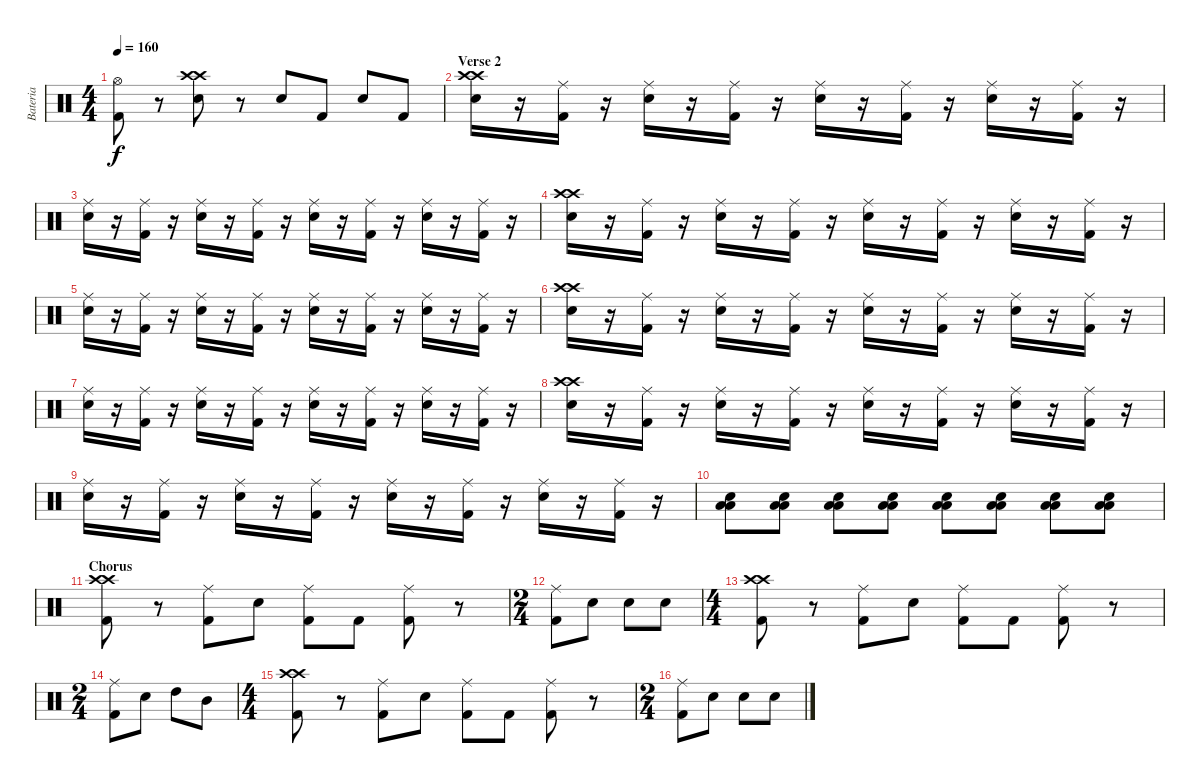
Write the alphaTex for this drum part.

\track ("Bateria" "Bateria") {instrument percussion}
\staff {score}
\articulation defaults
\ts (4 4)
\tempo 160
\clef neutral
\ks c
("Hi-Hat (open)" "Kick (hit) 2").8{dy f} r.8 ("Crash high (hit)" "Crash high (hit)" "Snare (hit) 2").8 r.8 "Snare (hit) 2".8 "Kick (hit) 2".8 "Snare (hit) 2".8 "Kick (hit) 2".8 |
\section ("" "Verse 2")
("Crash high (hit)" "Crash high (hit)" "Snare (hit) 2").16 r.16 ("Ride (middle)" "Kick (hit) 2").16 r.16 ("Ride (middle)" "Snare (hit) 2").16 r.16 ("Ride (middle)" "Kick (hit) 2").16 r.16 ("Ride (middle)" "Snare (hit) 2").16 r.16 ("Ride (middle)" "Kick (hit) 2").16 r.16 ("Ride (middle)" "Snare (hit) 2").16 r.16 ("Ride (middle)" "Kick (hit) 2").16 r.16 |
("Ride (middle)" "Snare (hit) 2").16 r.16 ("Ride (middle)" "Kick (hit) 2").16 r.16 ("Ride (middle)" "Snare (hit) 2").16 r.16 ("Ride (middle)" "Kick (hit) 2").16 r.16 ("Ride (middle)" "Snare (hit) 2").16 r.16 ("Ride (middle)" "Kick (hit) 2").16 r.16 ("Ride (middle)" "Snare (hit) 2").16 r.16 ("Ride (middle)" "Kick (hit) 2").16 r.16 |
("Crash high (hit)" "Crash high (hit)" "Snare (hit) 2").16 r.16 ("Ride (middle)" "Kick (hit) 2").16 r.16 ("Ride (middle)" "Snare (hit) 2").16 r.16 ("Ride (middle)" "Kick (hit) 2").16 r.16 ("Ride (middle)" "Snare (hit) 2").16 r.16 ("Ride (middle)" "Kick (hit) 2").16 r.16 ("Ride (middle)" "Snare (hit) 2").16 r.16 ("Ride (middle)" "Kick (hit) 2").16 r.16 |
("Ride (middle)" "Snare (hit) 2").16 r.16 ("Ride (middle)" "Kick (hit) 2").16 r.16 ("Ride (middle)" "Snare (hit) 2").16 r.16 ("Ride (middle)" "Kick (hit) 2").16 r.16 ("Ride (middle)" "Snare (hit) 2").16 r.16 ("Ride (middle)" "Kick (hit) 2").16 r.16 ("Ride (middle)" "Snare (hit) 2").16 r.16 ("Ride (middle)" "Kick (hit) 2").16 r.16 |
("Crash high (hit)" "Crash high (hit)" "Snare (hit) 2").16 r.16 ("Ride (middle)" "Kick (hit) 2").16 r.16 ("Ride (middle)" "Snare (hit) 2").16 r.16 ("Ride (middle)" "Kick (hit) 2").16 r.16 ("Ride (middle)" "Snare (hit) 2").16 r.16 ("Ride (middle)" "Kick (hit) 2").16 r.16 ("Ride (middle)" "Snare (hit) 2").16 r.16 ("Ride (middle)" "Kick (hit) 2").16 r.16 |
("Ride (middle)" "Snare (hit) 2").16 r.16 ("Ride (middle)" "Kick (hit) 2").16 r.16 ("Ride (middle)" "Snare (hit) 2").16 r.16 ("Ride (middle)" "Kick (hit) 2").16 r.16 ("Ride (middle)" "Snare (hit) 2").16 r.16 ("Ride (middle)" "Kick (hit) 2").16 r.16 ("Ride (middle)" "Snare (hit) 2").16 r.16 ("Ride (middle)" "Kick (hit) 2").16 r.16 |
("Crash high (hit)" "Crash high (hit)" "Snare (hit) 2").16 r.16 ("Ride (middle)" "Kick (hit) 2").16 r.16 ("Ride (middle)" "Snare (hit) 2").16 r.16 ("Ride (middle)" "Kick (hit) 2").16 r.16 ("Ride (middle)" "Snare (hit) 2").16 r.16 ("Ride (middle)" "Kick (hit) 2").16 r.16 ("Ride (middle)" "Snare (hit) 2").16 r.16 ("Ride (middle)" "Kick (hit) 2").16 r.16 |
("Ride (middle)" "Snare (hit) 2").16 r.16 ("Ride (middle)" "Kick (hit) 2").16 r.16 ("Ride (middle)" "Snare (hit) 2").16 r.16 ("Ride (middle)" "Kick (hit) 2").16 r.16 ("Ride (middle)" "Snare (hit) 2").16 r.16 ("Ride (middle)" "Kick (hit) 2").16 r.16 ("Ride (middle)" "Snare (hit) 2").16 r.16 ("Ride (middle)" "Kick (hit) 2").16 r.16 |
("Low Floor Tom (hit)" "Low Floor Tom (hit)" "Snare (hit) 2").8 ("Low Floor Tom (hit)" "Low Floor Tom (hit)" "Snare (hit) 2").8 ("Low Floor Tom (hit)" "Low Floor Tom (hit)" "Snare (hit) 2").8 ("Low Floor Tom (hit)" "Low Floor Tom (hit)" "Snare (hit) 2").8 ("Low Floor Tom (hit)" "Low Floor Tom (hit)" "Snare (hit) 2").8 ("Low Floor Tom (hit)" "Low Floor Tom (hit)" "Snare (hit) 2").8 ("Low Floor Tom (hit)" "Low Floor Tom (hit)" "Snare (hit) 2").8 ("Low Floor Tom (hit)" "Low Floor Tom (hit)" "Snare (hit) 2").8 |
\section ("" "Chorus")
("Crash high (hit)" "Crash high (hit)" "Kick (hit) 2").8 r.8 ("Ride (middle)" "Kick (hit) 2").8 "Snare (hit) 2".8 ("Ride (middle)" "Kick (hit) 2").8 "Kick (hit) 2".8 ("Ride (middle)" "Kick (hit) 2").8 r.8 |
\ts (2 4)
("Ride (middle)" "Kick (hit) 2").8 "Snare (hit) 2".8 "Snare (hit) 2".8 "Snare (hit) 2".8 |
\ts (4 4)
("Crash high (hit)" "Crash high (hit)" "Kick (hit) 2").8 r.8 ("Ride (middle)" "Kick (hit) 2").8 "Snare (hit) 2".8 ("Ride (middle)" "Kick (hit) 2").8 "Kick (hit) 2".8 ("Ride (middle)" "Kick (hit) 2").8 r.8 |
\ts (2 4)
("Ride (middle)" "Kick (hit) 2").8 "Snare (hit) 2".8 "High Tom (hit)".8 "Mid Tom (hit)".8 |
\ts (4 4)
("Crash high (hit)" "Crash high (hit)" "Kick (hit) 2").8 r.8 ("Ride (middle)" "Kick (hit) 2").8 "Snare (hit) 2".8 ("Ride (middle)" "Kick (hit) 2").8 "Kick (hit) 2".8 ("Ride (middle)" "Kick (hit) 2").8 r.8 |
\ts (2 4)
("Ride (middle)" "Kick (hit) 2").8 "Snare (hit) 2".8 "Snare (hit) 2".8 "Snare (hit) 2".8
